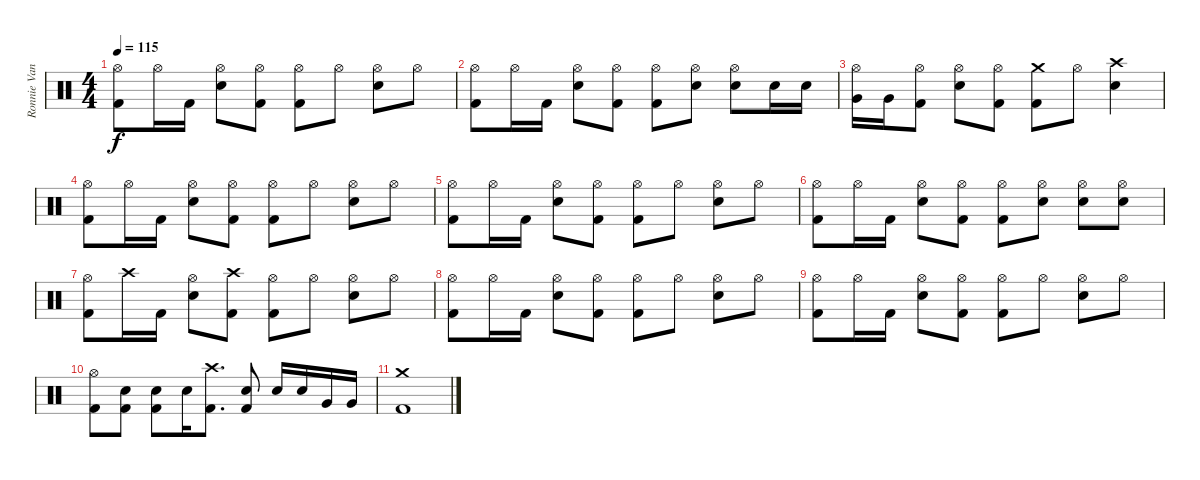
\track ("Ronnie Vannucci Jr. (Drums)" "Ronnie Van") {instrument percussion}
\staff {score}
\articulation defaults
\ts (4 4)
\tempo 115
\clef neutral
\ks c
("Hi-Hat (open)" "Kick (hit) 2").8{dy f} "Hi-Hat (open)".16 "Kick (hit) 2".16 ("Hi-Hat (open)" "Electric Snare (hit)").8 ("Hi-Hat (open)" "Kick (hit) 2").8 ("Hi-Hat (open)" "Kick (hit) 2").8 "Hi-Hat (open)".8 ("Hi-Hat (open)" "Electric Snare (hit)").8 "Hi-Hat (open)".8 |
("Hi-Hat (open)" "Kick (hit) 2").8 "Hi-Hat (open)".16 "Kick (hit) 2".16 ("Hi-Hat (open)" "Electric Snare (hit)").8 ("Hi-Hat (open)" "Kick (hit) 2").8 ("Hi-Hat (open)" "Kick (hit) 2").8 ("Hi-Hat (open)" "Electric Snare (hit)").8 ("Hi-Hat (open)" "Electric Snare (hit)").8 "Electric Snare (hit)".16 "Electric Snare (hit)".16 |
("Hi-Hat (open)" "Very Low Tom (hit)").16 "Very Low Tom (hit)".16 ("Hi-Hat (open)" "Kick (hit) 2").8 ("Hi-Hat (open)" "Electric Snare (hit)").8 ("Hi-Hat (open)" "Kick (hit) 2").8 ("Crash medium (hit)" "Kick (hit) 2").8 "Hi-Hat (open)".8 ("Crash high (hit)" "Electric Snare (hit)").4 |
("Hi-Hat (open)" "Kick (hit) 2").8 "Hi-Hat (open)".16 "Kick (hit) 2".16 ("Hi-Hat (open)" "Electric Snare (hit)").8 ("Hi-Hat (open)" "Kick (hit) 2").8 ("Hi-Hat (open)" "Kick (hit) 2").8 "Hi-Hat (open)".8 ("Hi-Hat (open)" "Electric Snare (hit)").8 "Hi-Hat (open)".8 |
("Hi-Hat (open)" "Kick (hit) 2").8 "Hi-Hat (open)".16 "Kick (hit) 2".16 ("Hi-Hat (open)" "Electric Snare (hit)").8 ("Hi-Hat (open)" "Kick (hit) 2").8 ("Hi-Hat (open)" "Kick (hit) 2").8 "Hi-Hat (open)".8 ("Hi-Hat (open)" "Electric Snare (hit)").8 "Hi-Hat (open)".8 |
("Hi-Hat (open)" "Kick (hit) 2").8 "Hi-Hat (open)".16 "Kick (hit) 2".16 ("Hi-Hat (open)" "Electric Snare (hit)").8 ("Hi-Hat (open)" "Kick (hit) 2").8 ("Hi-Hat (open)" "Kick (hit) 2").8 ("Hi-Hat (open)" "Electric Snare (hit)").8 ("Hi-Hat (open)" "Electric Snare (hit)").8 ("Hi-Hat (open)" "Electric Snare (hit)").8 |
("Hi-Hat (open)" "Kick (hit) 2").8 "Crash high (hit)".16 "Kick (hit) 2".16 ("Hi-Hat (open)" "Electric Snare (hit)").8 ("Crash high (hit)" "Kick (hit) 2").8 ("Hi-Hat (open)" "Kick (hit) 2").8 "Hi-Hat (open)".8 ("Hi-Hat (open)" "Electric Snare (hit)").8 "Hi-Hat (open)".8 |
("Hi-Hat (open)" "Kick (hit) 2").8 "Hi-Hat (open)".16 "Kick (hit) 2".16 ("Hi-Hat (open)" "Electric Snare (hit)").8 ("Hi-Hat (open)" "Kick (hit) 2").8 ("Hi-Hat (open)" "Kick (hit) 2").8 "Hi-Hat (open)".8 ("Hi-Hat (open)" "Electric Snare (hit)").8 "Hi-Hat (open)".8 |
("Hi-Hat (open)" "Kick (hit) 2").8 "Hi-Hat (open)".16 "Kick (hit) 2".16 ("Hi-Hat (open)" "Electric Snare (hit)").8 ("Hi-Hat (open)" "Kick (hit) 2").8 ("Hi-Hat (open)" "Kick (hit) 2").8 "Hi-Hat (open)".8 ("Hi-Hat (open)" "Electric Snare (hit)").8 "Hi-Hat (open)".8 |
("Hi-Hat (open)" "Kick (hit) 2").8 ("Electric Snare (hit)" "Kick (hit) 2").8 ("Electric Snare (hit)" "Kick (hit) 2").8 "Electric Snare (hit)".16 ("Crash high (hit)" "Kick (hit) 2").8{d} ("Electric Snare (hit)" "Kick (hit) 2").8 "Electric Snare (hit)".16 "Electric Snare (hit)".16 "Very Low Tom (hit)".16 "Very Low Tom (hit)".16 |
("Crash medium (hit)" "Kick (hit) 2").1
